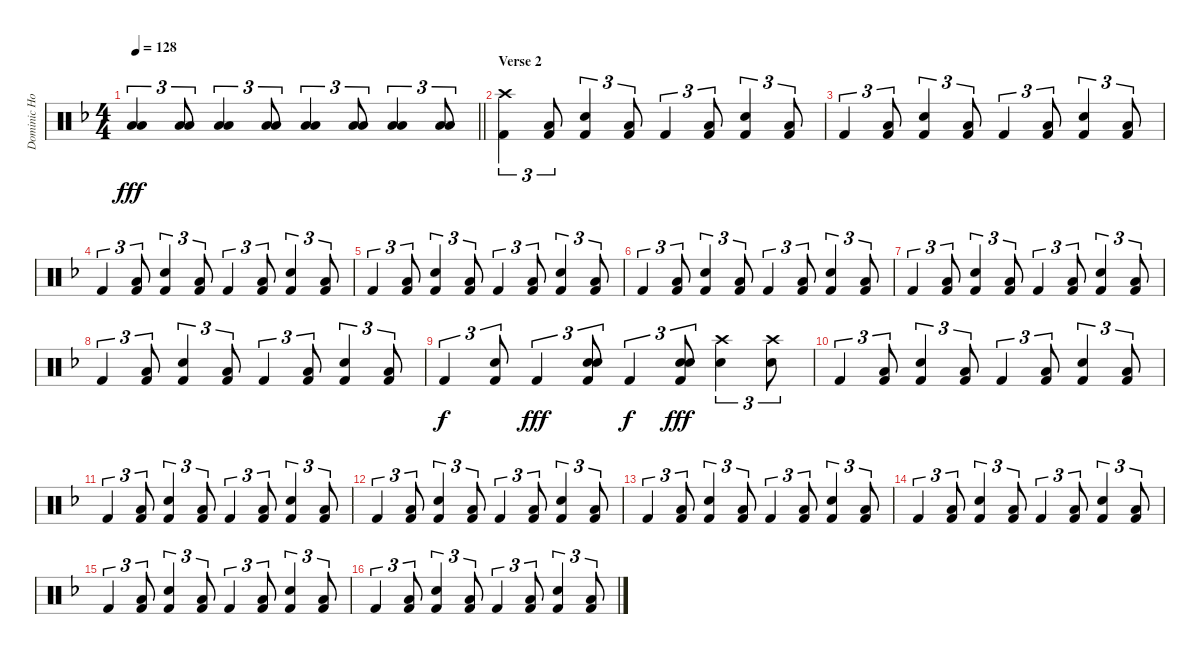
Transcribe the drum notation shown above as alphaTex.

\track ("Dominic Howard Drums" "Dominic Ho") {instrument percussion}
\staff {score}
\articulation defaults
\ts (4 4)
\tempo 128
\clef neutral
\barLineRight lightlight
\ks dminor
("Low Tom (hit)" "Low Floor Tom (hit)").4{tu (3 2) dy fff} ("Low Tom (hit)" "Low Floor Tom (hit)").8{tu (3 2)} ("Low Tom (hit)" "Low Floor Tom (hit)").4{tu (3 2)} ("Low Tom (hit)" "Low Floor Tom (hit)").8{tu (3 2)} ("Low Tom (hit)" "Low Floor Tom (hit)").4{tu (3 2)} ("Low Tom (hit)" "Low Floor Tom (hit)").8{tu (3 2)} ("Low Tom (hit)" "Low Floor Tom (hit)").4{tu (3 2)} ("Low Tom (hit)" "Low Floor Tom (hit)").8{tu (3 2)} |
\section ("" "Verse 2")
("Crash high (hit)" "Kick (hit) 2").4{tu (3 2)} ("Low Floor Tom (hit)" "Kick (hit) 2").8{tu (3 2)} ("Snare (hit) 2" "Kick (hit) 2").4{tu (3 2)} ("Low Floor Tom (hit)" "Kick (hit) 2").8{tu (3 2)} "Kick (hit) 2".4{tu (3 2)} ("Low Floor Tom (hit)" "Kick (hit) 2").8{tu (3 2)} ("Snare (hit) 2" "Kick (hit) 2").4{tu (3 2)} ("Low Floor Tom (hit)" "Kick (hit) 2").8{tu (3 2)} |
"Kick (hit) 2".4{tu (3 2)} ("Low Floor Tom (hit)" "Kick (hit) 2").8{tu (3 2)} ("Snare (hit) 2" "Kick (hit) 2").4{tu (3 2)} ("Low Floor Tom (hit)" "Kick (hit) 2").8{tu (3 2)} "Kick (hit) 2".4{tu (3 2)} ("Low Floor Tom (hit)" "Kick (hit) 2").8{tu (3 2)} ("Snare (hit) 2" "Kick (hit) 2").4{tu (3 2)} ("Low Floor Tom (hit)" "Kick (hit) 2").8{tu (3 2)} |
"Kick (hit) 2".4{tu (3 2)} ("Low Floor Tom (hit)" "Kick (hit) 2").8{tu (3 2)} ("Snare (hit) 2" "Kick (hit) 2").4{tu (3 2)} ("Low Floor Tom (hit)" "Kick (hit) 2").8{tu (3 2)} "Kick (hit) 2".4{tu (3 2)} ("Low Floor Tom (hit)" "Kick (hit) 2").8{tu (3 2)} ("Snare (hit) 2" "Kick (hit) 2").4{tu (3 2)} ("Low Floor Tom (hit)" "Kick (hit) 2").8{tu (3 2)} |
"Kick (hit) 2".4{tu (3 2)} ("Low Floor Tom (hit)" "Kick (hit) 2").8{tu (3 2)} ("Snare (hit) 2" "Kick (hit) 2").4{tu (3 2)} ("Low Floor Tom (hit)" "Kick (hit) 2").8{tu (3 2)} "Kick (hit) 2".4{tu (3 2)} ("Low Floor Tom (hit)" "Kick (hit) 2").8{tu (3 2)} ("Snare (hit) 2" "Kick (hit) 2").4{tu (3 2)} ("Low Floor Tom (hit)" "Kick (hit) 2").8{tu (3 2)} |
"Kick (hit) 2".4{tu (3 2)} ("Low Floor Tom (hit)" "Kick (hit) 2").8{tu (3 2)} ("Snare (hit) 2" "Kick (hit) 2").4{tu (3 2)} ("Low Floor Tom (hit)" "Kick (hit) 2").8{tu (3 2)} "Kick (hit) 2".4{tu (3 2)} ("Low Floor Tom (hit)" "Kick (hit) 2").8{tu (3 2)} ("Snare (hit) 2" "Kick (hit) 2").4{tu (3 2)} ("Low Floor Tom (hit)" "Kick (hit) 2").8{tu (3 2)} |
"Kick (hit) 2".4{tu (3 2)} ("Low Floor Tom (hit)" "Kick (hit) 2").8{tu (3 2)} ("Snare (hit) 2" "Kick (hit) 2").4{tu (3 2)} ("Low Floor Tom (hit)" "Kick (hit) 2").8{tu (3 2)} "Kick (hit) 2".4{tu (3 2)} ("Low Floor Tom (hit)" "Kick (hit) 2").8{tu (3 2)} ("Snare (hit) 2" "Kick (hit) 2").4{tu (3 2)} ("Low Floor Tom (hit)" "Kick (hit) 2").8{tu (3 2)} |
"Kick (hit) 2".4{tu (3 2)} ("Low Floor Tom (hit)" "Kick (hit) 2").8{tu (3 2)} ("Snare (hit) 2" "Kick (hit) 2").4{tu (3 2)} ("Low Floor Tom (hit)" "Kick (hit) 2").8{tu (3 2)} "Kick (hit) 2".4{tu (3 2)} ("Low Floor Tom (hit)" "Kick (hit) 2").8{tu (3 2)} ("Snare (hit) 2" "Kick (hit) 2").4{tu (3 2)} ("Low Floor Tom (hit)" "Kick (hit) 2").8{tu (3 2)} |
"Kick (hit) 2".4{tu (3 2) dy f} ("Snare (hit) 2" "Kick (hit) 2").8{tu (3 2)} "Kick (hit) 2".4{tu (3 2) dy fff} ("Electric Snare (hit)" "Snare (hit) 2" "Kick (hit) 2").8{tu (3 2)} "Kick (hit) 2".4{tu (3 2) dy f} ("Electric Snare (hit)" "Snare (hit) 2" "Kick (hit) 2").8{tu (3 2) dy fff} ("Crash high (hit)" "Snare (hit) 2").4{tu (3 2)} ("Crash high (hit)" "Snare (hit) 2").8{tu (3 2)} |
"Kick (hit) 2".4{tu (3 2)} ("Low Floor Tom (hit)" "Kick (hit) 2").8{tu (3 2)} ("Snare (hit) 2" "Kick (hit) 2").4{tu (3 2)} ("Low Floor Tom (hit)" "Kick (hit) 2").8{tu (3 2)} "Kick (hit) 2".4{tu (3 2)} ("Low Floor Tom (hit)" "Kick (hit) 2").8{tu (3 2)} ("Snare (hit) 2" "Kick (hit) 2").4{tu (3 2)} ("Low Floor Tom (hit)" "Kick (hit) 2").8{tu (3 2)} |
"Kick (hit) 2".4{tu (3 2)} ("Low Floor Tom (hit)" "Kick (hit) 2").8{tu (3 2)} ("Snare (hit) 2" "Kick (hit) 2").4{tu (3 2)} ("Low Floor Tom (hit)" "Kick (hit) 2").8{tu (3 2)} "Kick (hit) 2".4{tu (3 2)} ("Low Floor Tom (hit)" "Kick (hit) 2").8{tu (3 2)} ("Snare (hit) 2" "Kick (hit) 2").4{tu (3 2)} ("Low Floor Tom (hit)" "Kick (hit) 2").8{tu (3 2)} |
"Kick (hit) 2".4{tu (3 2)} ("Low Floor Tom (hit)" "Kick (hit) 2").8{tu (3 2)} ("Snare (hit) 2" "Kick (hit) 2").4{tu (3 2)} ("Low Floor Tom (hit)" "Kick (hit) 2").8{tu (3 2)} "Kick (hit) 2".4{tu (3 2)} ("Low Floor Tom (hit)" "Kick (hit) 2").8{tu (3 2)} ("Snare (hit) 2" "Kick (hit) 2").4{tu (3 2)} ("Low Floor Tom (hit)" "Kick (hit) 2").8{tu (3 2)} |
"Kick (hit) 2".4{tu (3 2)} ("Low Floor Tom (hit)" "Kick (hit) 2").8{tu (3 2)} ("Snare (hit) 2" "Kick (hit) 2").4{tu (3 2)} ("Low Floor Tom (hit)" "Kick (hit) 2").8{tu (3 2)} "Kick (hit) 2".4{tu (3 2)} ("Low Floor Tom (hit)" "Kick (hit) 2").8{tu (3 2)} ("Snare (hit) 2" "Kick (hit) 2").4{tu (3 2)} ("Low Floor Tom (hit)" "Kick (hit) 2").8{tu (3 2)} |
"Kick (hit) 2".4{tu (3 2)} ("Low Floor Tom (hit)" "Kick (hit) 2").8{tu (3 2)} ("Snare (hit) 2" "Kick (hit) 2").4{tu (3 2)} ("Low Floor Tom (hit)" "Kick (hit) 2").8{tu (3 2)} "Kick (hit) 2".4{tu (3 2)} ("Low Floor Tom (hit)" "Kick (hit) 2").8{tu (3 2)} ("Snare (hit) 2" "Kick (hit) 2").4{tu (3 2)} ("Low Floor Tom (hit)" "Kick (hit) 2").8{tu (3 2)} |
"Kick (hit) 2".4{tu (3 2)} ("Low Floor Tom (hit)" "Kick (hit) 2").8{tu (3 2)} ("Snare (hit) 2" "Kick (hit) 2").4{tu (3 2)} ("Low Floor Tom (hit)" "Kick (hit) 2").8{tu (3 2)} "Kick (hit) 2".4{tu (3 2)} ("Low Floor Tom (hit)" "Kick (hit) 2").8{tu (3 2)} ("Snare (hit) 2" "Kick (hit) 2").4{tu (3 2)} ("Low Floor Tom (hit)" "Kick (hit) 2").8{tu (3 2)} |
"Kick (hit) 2".4{tu (3 2)} ("Low Floor Tom (hit)" "Kick (hit) 2").8{tu (3 2)} ("Snare (hit) 2" "Kick (hit) 2").4{tu (3 2)} ("Low Floor Tom (hit)" "Kick (hit) 2").8{tu (3 2)} "Kick (hit) 2".4{tu (3 2)} ("Low Floor Tom (hit)" "Kick (hit) 2").8{tu (3 2)} ("Snare (hit) 2" "Kick (hit) 2").4{tu (3 2)} ("Low Floor Tom (hit)" "Kick (hit) 2").8{tu (3 2)}
